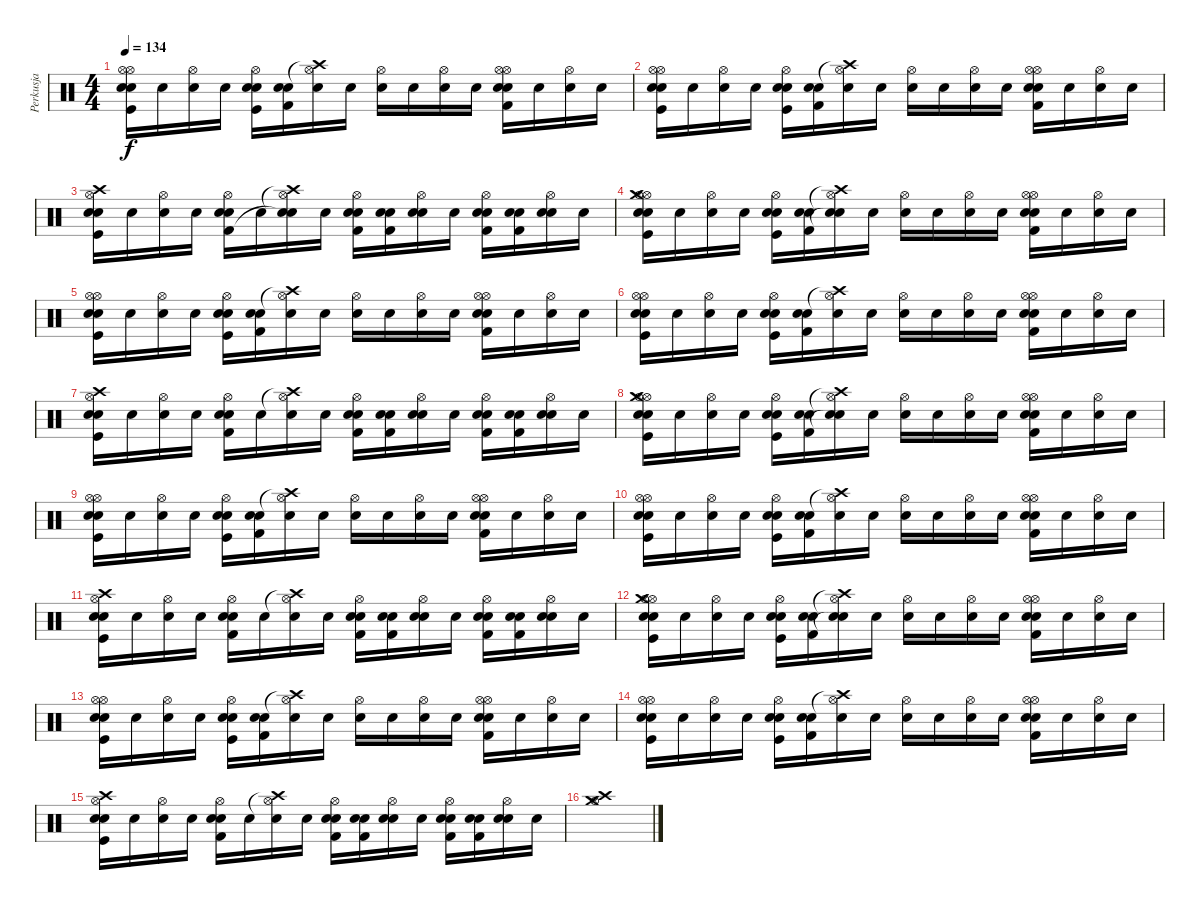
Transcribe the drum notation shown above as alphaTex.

\track ("Perkusja" "Perkusja") {instrument percussion}
\staff {score}
\articulation defaults
\ts (4 4)
\tempo 134
\clef neutral
\ks c
("Hi-Hat (open)" "Electric Snare (hit)" "Kick (hit)" "Hi-Hat (open)" "Snare (hit)").16{dy f} "Snare (hit)".16 ("Hi-Hat (open)" "Snare (hit)").16 "Snare (hit)".16 ("Electric Snare (hit)" "Kick (hit)" "Hi-Hat (open)" "Snare (hit)").16 ("Electric Snare (hit)" "Kick (hit) 2" "Snare (hit)").16 ("Crash high (hit)"{t} "Hi-Hat (open)" "Snare (hit)").16 "Snare (hit)".16 ("Hi-Hat (open)" "Snare (hit)").16 "Snare (hit)".16 ("Hi-Hat (open)" "Snare (hit)").16 "Snare (hit)".16 ("Hi-Hat (open)" "Electric Snare (hit)" "Kick (hit) 2" "Hi-Hat (open)" "Snare (hit)").16 "Snare (hit)".16 ("Hi-Hat (open)" "Snare (hit)").16 "Snare (hit)".16 |
("Hi-Hat (open)" "Electric Snare (hit)" "Kick (hit)" "Hi-Hat (open)" "Snare (hit)").16 "Snare (hit)".16 ("Hi-Hat (open)" "Snare (hit)").16 "Snare (hit)".16 ("Electric Snare (hit)" "Kick (hit)" "Hi-Hat (open)" "Snare (hit)").16 ("Electric Snare (hit)" "Kick (hit) 2" "Snare (hit)").16 ("Crash high (hit)"{t} "Hi-Hat (open)" "Snare (hit)").16 "Snare (hit)".16 ("Hi-Hat (open)" "Snare (hit)").16 "Snare (hit)".16 ("Hi-Hat (open)" "Snare (hit)").16 "Snare (hit)".16 ("Hi-Hat (open)" "Electric Snare (hit)" "Kick (hit) 2" "Hi-Hat (open)" "Snare (hit)").16 "Snare (hit)".16 ("Hi-Hat (open)" "Snare (hit)").16 "Snare (hit)".16 |
("Crash high (hit)" "Electric Snare (hit)" "Kick (hit)" "Hi-Hat (open)" "Snare (hit)").16 "Snare (hit)".16 ("Hi-Hat (open)" "Snare (hit)").16 "Snare (hit)".16 ("Electric Snare (hit)" "Kick (hit) 2" "Hi-Hat (open)" "Snare (hit)").16 "Snare (hit)".16 ("Crash high (hit)"{t} "Snare (hit)"{t} "Hi-Hat (open)" "Snare (hit)").16 "Snare (hit)".16 ("Electric Snare (hit)" "Kick (hit) 2" "Hi-Hat (open)" "Snare (hit)").16 ("Electric Snare (hit)" "Kick (hit) 2" "Snare (hit)").16 ("Electric Snare (hit)" "Hi-Hat (open)" "Snare (hit)").16 "Snare (hit)".16 ("Electric Snare (hit)" "Kick (hit) 2" "Hi-Hat (open)" "Snare (hit)").16 ("Electric Snare (hit)" "Kick (hit) 2" "Snare (hit)").16 ("Electric Snare (hit)" "Hi-Hat (open)" "Snare (hit)").16 "Snare (hit)".16 |
("Hi-Hat (open)" "Crash medium (hit)" "Electric Snare (hit)" "Kick (hit)" "Hi-Hat (open)" "Snare (hit)").16 "Snare (hit)".16 ("Hi-Hat (open)" "Snare (hit)").16 "Snare (hit)".16 ("Electric Snare (hit)" "Kick (hit)" "Hi-Hat (open)" "Snare (hit)").16 ("Electric Snare (hit)" "Kick (hit) 2" "Snare (hit)").16 ("Crash high (hit)"{t} "Snare (hit)"{t} "Hi-Hat (open)" "Snare (hit)").16 "Snare (hit)".16 ("Hi-Hat (open)" "Snare (hit)").16 "Snare (hit)".16 ("Hi-Hat (open)" "Snare (hit)").16 "Snare (hit)".16 ("Hi-Hat (open)" "Electric Snare (hit)" "Kick (hit) 2" "Hi-Hat (open)" "Snare (hit)").16 "Snare (hit)".16 ("Hi-Hat (open)" "Snare (hit)").16 "Snare (hit)".16 |
("Hi-Hat (open)" "Electric Snare (hit)" "Kick (hit)" "Hi-Hat (open)" "Snare (hit)").16 "Snare (hit)".16 ("Hi-Hat (open)" "Snare (hit)").16 "Snare (hit)".16 ("Electric Snare (hit)" "Kick (hit)" "Hi-Hat (open)" "Snare (hit)").16 ("Electric Snare (hit)" "Kick (hit) 2" "Snare (hit)").16 ("Crash high (hit)"{t} "Hi-Hat (open)" "Snare (hit)").16 "Snare (hit)".16 ("Hi-Hat (open)" "Snare (hit)").16 "Snare (hit)".16 ("Hi-Hat (open)" "Snare (hit)").16 "Snare (hit)".16 ("Hi-Hat (open)" "Electric Snare (hit)" "Kick (hit) 2" "Hi-Hat (open)" "Snare (hit)").16 "Snare (hit)".16 ("Hi-Hat (open)" "Snare (hit)").16 "Snare (hit)".16 |
("Hi-Hat (open)" "Electric Snare (hit)" "Kick (hit)" "Hi-Hat (open)" "Snare (hit)").16 "Snare (hit)".16 ("Hi-Hat (open)" "Snare (hit)").16 "Snare (hit)".16 ("Electric Snare (hit)" "Kick (hit)" "Hi-Hat (open)" "Snare (hit)").16 ("Electric Snare (hit)" "Kick (hit) 2" "Snare (hit)").16 ("Crash high (hit)"{t} "Hi-Hat (open)" "Snare (hit)").16 "Snare (hit)".16 ("Hi-Hat (open)" "Snare (hit)").16 "Snare (hit)".16 ("Hi-Hat (open)" "Snare (hit)").16 "Snare (hit)".16 ("Hi-Hat (open)" "Electric Snare (hit)" "Kick (hit) 2" "Hi-Hat (open)" "Snare (hit)").16 "Snare (hit)".16 ("Hi-Hat (open)" "Snare (hit)").16 "Snare (hit)".16 |
("Crash high (hit)" "Electric Snare (hit)" "Kick (hit)" "Hi-Hat (open)" "Snare (hit)").16 "Snare (hit)".16 ("Hi-Hat (open)" "Snare (hit)").16 "Snare (hit)".16 ("Electric Snare (hit)" "Kick (hit) 2" "Hi-Hat (open)" "Snare (hit)").16 "Snare (hit)".16 ("Crash high (hit)"{t} "Hi-Hat (open)" "Snare (hit)").16 "Snare (hit)".16 ("Electric Snare (hit)" "Kick (hit) 2" "Hi-Hat (open)" "Snare (hit)").16 ("Electric Snare (hit)" "Kick (hit) 2" "Snare (hit)").16 ("Electric Snare (hit)" "Hi-Hat (open)" "Snare (hit)").16 "Snare (hit)".16 ("Electric Snare (hit)" "Kick (hit) 2" "Hi-Hat (open)" "Snare (hit)").16 ("Electric Snare (hit)" "Kick (hit) 2" "Snare (hit)").16 ("Electric Snare (hit)" "Hi-Hat (open)" "Snare (hit)").16 "Snare (hit)".16 |
("Hi-Hat (open)" "Crash medium (hit)" "Electric Snare (hit)" "Kick (hit)" "Hi-Hat (open)" "Snare (hit)").16 "Snare (hit)".16 ("Hi-Hat (open)" "Snare (hit)").16 "Snare (hit)".16 ("Electric Snare (hit)" "Kick (hit)" "Hi-Hat (open)" "Snare (hit)").16 ("Electric Snare (hit)" "Kick (hit) 2" "Snare (hit)").16 ("Crash high (hit)"{t} "Snare (hit)"{t} "Hi-Hat (open)" "Snare (hit)").16 "Snare (hit)".16 ("Hi-Hat (open)" "Snare (hit)").16 "Snare (hit)".16 ("Hi-Hat (open)" "Snare (hit)").16 "Snare (hit)".16 ("Hi-Hat (open)" "Electric Snare (hit)" "Kick (hit) 2" "Hi-Hat (open)" "Snare (hit)").16 "Snare (hit)".16 ("Hi-Hat (open)" "Snare (hit)").16 "Snare (hit)".16 |
("Hi-Hat (open)" "Electric Snare (hit)" "Kick (hit)" "Hi-Hat (open)" "Snare (hit)").16 "Snare (hit)".16 ("Hi-Hat (open)" "Snare (hit)").16 "Snare (hit)".16 ("Electric Snare (hit)" "Kick (hit)" "Hi-Hat (open)" "Snare (hit)").16 ("Electric Snare (hit)" "Kick (hit) 2" "Snare (hit)").16 ("Crash high (hit)"{t} "Hi-Hat (open)" "Snare (hit)").16 "Snare (hit)".16 ("Hi-Hat (open)" "Snare (hit)").16 "Snare (hit)".16 ("Hi-Hat (open)" "Snare (hit)").16 "Snare (hit)".16 ("Hi-Hat (open)" "Electric Snare (hit)" "Kick (hit) 2" "Hi-Hat (open)" "Snare (hit)").16 "Snare (hit)".16 ("Hi-Hat (open)" "Snare (hit)").16 "Snare (hit)".16 |
("Hi-Hat (open)" "Electric Snare (hit)" "Kick (hit)" "Hi-Hat (open)" "Snare (hit)").16 "Snare (hit)".16 ("Hi-Hat (open)" "Snare (hit)").16 "Snare (hit)".16 ("Electric Snare (hit)" "Kick (hit)" "Hi-Hat (open)" "Snare (hit)").16 ("Electric Snare (hit)" "Kick (hit) 2" "Snare (hit)").16 ("Crash high (hit)"{t} "Hi-Hat (open)" "Snare (hit)").16 "Snare (hit)".16 ("Hi-Hat (open)" "Snare (hit)").16 "Snare (hit)".16 ("Hi-Hat (open)" "Snare (hit)").16 "Snare (hit)".16 ("Hi-Hat (open)" "Electric Snare (hit)" "Kick (hit) 2" "Hi-Hat (open)" "Snare (hit)").16 "Snare (hit)".16 ("Hi-Hat (open)" "Snare (hit)").16 "Snare (hit)".16 |
("Crash high (hit)" "Electric Snare (hit)" "Kick (hit)" "Hi-Hat (open)" "Snare (hit)").16 "Snare (hit)".16 ("Hi-Hat (open)" "Snare (hit)").16 "Snare (hit)".16 ("Electric Snare (hit)" "Kick (hit) 2" "Hi-Hat (open)" "Snare (hit)").16 "Snare (hit)".16 ("Crash high (hit)"{t} "Hi-Hat (open)" "Snare (hit)").16 "Snare (hit)".16 ("Electric Snare (hit)" "Kick (hit) 2" "Hi-Hat (open)" "Snare (hit)").16 ("Electric Snare (hit)" "Kick (hit) 2" "Snare (hit)").16 ("Electric Snare (hit)" "Hi-Hat (open)" "Snare (hit)").16 "Snare (hit)".16 ("Electric Snare (hit)" "Kick (hit) 2" "Hi-Hat (open)" "Snare (hit)").16 ("Electric Snare (hit)" "Kick (hit) 2" "Snare (hit)").16 ("Electric Snare (hit)" "Hi-Hat (open)" "Snare (hit)").16 "Snare (hit)".16 |
("Hi-Hat (open)" "Crash medium (hit)" "Electric Snare (hit)" "Kick (hit)" "Hi-Hat (open)" "Snare (hit)").16 "Snare (hit)".16 ("Hi-Hat (open)" "Snare (hit)").16 "Snare (hit)".16 ("Electric Snare (hit)" "Kick (hit)" "Hi-Hat (open)" "Snare (hit)").16 ("Electric Snare (hit)" "Kick (hit) 2" "Snare (hit)").16 ("Crash high (hit)"{t} "Snare (hit)"{t} "Hi-Hat (open)" "Snare (hit)").16 "Snare (hit)".16 ("Hi-Hat (open)" "Snare (hit)").16 "Snare (hit)".16 ("Hi-Hat (open)" "Snare (hit)").16 "Snare (hit)".16 ("Hi-Hat (open)" "Electric Snare (hit)" "Kick (hit) 2" "Hi-Hat (open)" "Snare (hit)").16 "Snare (hit)".16 ("Hi-Hat (open)" "Snare (hit)").16 "Snare (hit)".16 |
("Hi-Hat (open)" "Electric Snare (hit)" "Kick (hit)" "Hi-Hat (open)" "Snare (hit)").16 "Snare (hit)".16 ("Hi-Hat (open)" "Snare (hit)").16 "Snare (hit)".16 ("Electric Snare (hit)" "Kick (hit)" "Hi-Hat (open)" "Snare (hit)").16 ("Electric Snare (hit)" "Kick (hit) 2" "Snare (hit)").16 ("Crash high (hit)"{t} "Hi-Hat (open)" "Snare (hit)").16 "Snare (hit)".16 ("Hi-Hat (open)" "Snare (hit)").16 "Snare (hit)".16 ("Hi-Hat (open)" "Snare (hit)").16 "Snare (hit)".16 ("Hi-Hat (open)" "Electric Snare (hit)" "Kick (hit) 2" "Hi-Hat (open)" "Snare (hit)").16 "Snare (hit)".16 ("Hi-Hat (open)" "Snare (hit)").16 "Snare (hit)".16 |
("Hi-Hat (open)" "Electric Snare (hit)" "Kick (hit)" "Hi-Hat (open)" "Snare (hit)").16 "Snare (hit)".16 ("Hi-Hat (open)" "Snare (hit)").16 "Snare (hit)".16 ("Electric Snare (hit)" "Kick (hit)" "Hi-Hat (open)" "Snare (hit)").16 ("Electric Snare (hit)" "Kick (hit) 2" "Snare (hit)").16 ("Crash high (hit)"{t} "Hi-Hat (open)" "Snare (hit)").16 "Snare (hit)".16 ("Hi-Hat (open)" "Snare (hit)").16 "Snare (hit)".16 ("Hi-Hat (open)" "Snare (hit)").16 "Snare (hit)".16 ("Hi-Hat (open)" "Electric Snare (hit)" "Kick (hit) 2" "Hi-Hat (open)" "Snare (hit)").16 "Snare (hit)".16 ("Hi-Hat (open)" "Snare (hit)").16 "Snare (hit)".16 |
("Crash high (hit)" "Electric Snare (hit)" "Kick (hit)" "Hi-Hat (open)" "Snare (hit)").16 "Snare (hit)".16 ("Hi-Hat (open)" "Snare (hit)").16 "Snare (hit)".16 ("Electric Snare (hit)" "Kick (hit) 2" "Hi-Hat (open)" "Snare (hit)").16 "Snare (hit)".16 ("Crash high (hit)"{t} "Hi-Hat (open)" "Snare (hit)").16 "Snare (hit)".16 ("Electric Snare (hit)" "Kick (hit) 2" "Hi-Hat (open)" "Snare (hit)").16 ("Electric Snare (hit)" "Kick (hit) 2" "Snare (hit)").16 ("Electric Snare (hit)" "Hi-Hat (open)" "Snare (hit)").16 "Snare (hit)".16 ("Electric Snare (hit)" "Kick (hit) 2" "Hi-Hat (open)" "Snare (hit)").16 ("Electric Snare (hit)" "Kick (hit) 2" "Snare (hit)").16 ("Electric Snare (hit)" "Hi-Hat (open)" "Snare (hit)").16 "Snare (hit)".16 |
("Hi-Hat (open)" "Crash high (hit)" "Crash medium (hit)").1
